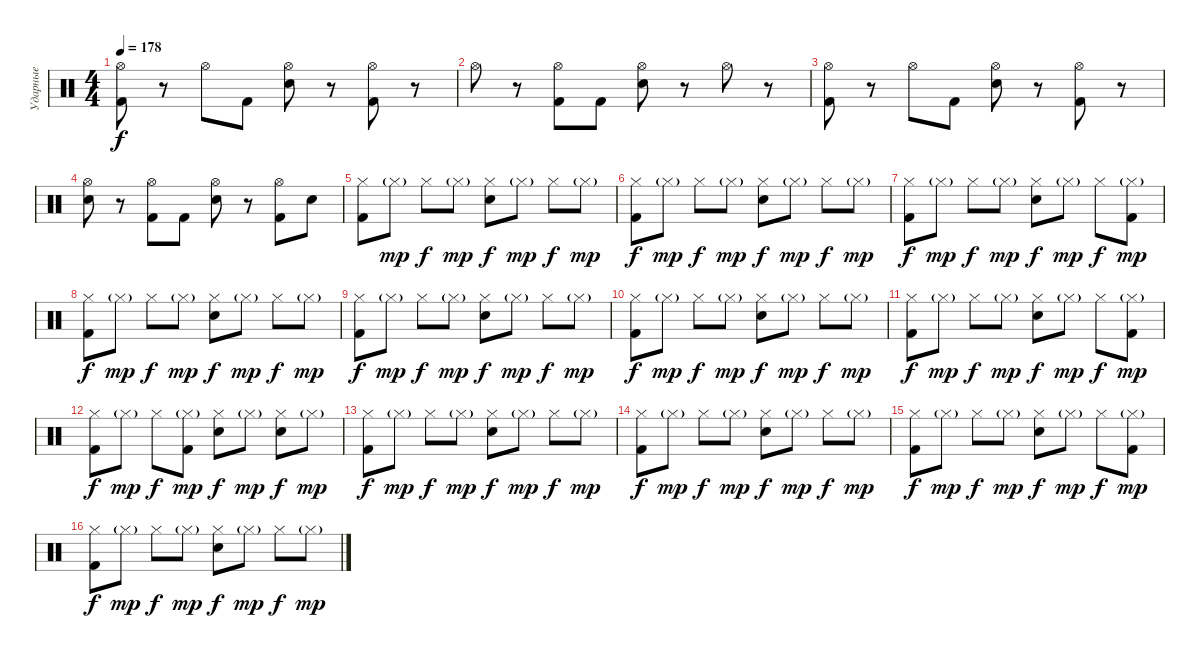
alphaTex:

\track ("Ударные" "Ударные") {instrument percussion}
\staff {score}
\articulation defaults
\ts (4 4)
\tempo 178
\clef neutral
\ks c
("Hi-Hat (open)" "Kick (hit) 2").8{dy f} r.8 "Hi-Hat (open)".8 "Kick (hit) 2".8 ("Hi-Hat (open)" "Snare (hit) 2").8 r.8 ("Hi-Hat (open)" "Kick (hit) 2").8 r.8 |
"Hi-Hat (open)".8 r.8 ("Hi-Hat (open)" "Kick (hit) 2").8 "Kick (hit) 2".8 ("Hi-Hat (open)" "Snare (hit) 2").8 r.8 "Hi-Hat (open)".8 r.8 |
("Hi-Hat (open)" "Kick (hit) 2").8 r.8 "Hi-Hat (open)".8 "Kick (hit) 2".8 ("Hi-Hat (open)" "Snare (hit) 2").8 r.8 ("Hi-Hat (open)" "Kick (hit) 2").8 r.8 |
("Hi-Hat (open)" "Snare (hit) 2").8 r.8 ("Hi-Hat (open)" "Kick (hit) 2").8 "Kick (hit) 2".8 ("Hi-Hat (open)" "Snare (hit) 2").8 r.8 ("Hi-Hat (open)" "Kick (hit) 2").8 "Snare (hit) 2".8 |
("Hi-Hat (closed)" "Kick (hit) 2").8 "Hi-Hat (closed)"{g}.8{dy mp} "Hi-Hat (closed)".8{dy f} "Hi-Hat (closed)"{g}.8{dy mp} ("Hi-Hat (closed)" "Snare (hit) 2").8{dy f} "Hi-Hat (closed)"{g}.8{dy mp} "Hi-Hat (closed)".8{dy f} "Hi-Hat (closed)"{g}.8{dy mp} |
("Hi-Hat (closed)" "Kick (hit) 2").8{dy f} "Hi-Hat (closed)"{g}.8{dy mp} "Hi-Hat (closed)".8{dy f} "Hi-Hat (closed)"{g}.8{dy mp} ("Hi-Hat (closed)" "Snare (hit) 2").8{dy f} "Hi-Hat (closed)"{g}.8{dy mp} "Hi-Hat (closed)".8{dy f} "Hi-Hat (closed)"{g}.8{dy mp} |
("Hi-Hat (closed)" "Kick (hit) 2").8{dy f} "Hi-Hat (closed)"{g}.8{dy mp} "Hi-Hat (closed)".8{dy f} "Hi-Hat (closed)"{g}.8{dy mp} ("Hi-Hat (closed)" "Snare (hit) 2").8{dy f} "Hi-Hat (closed)"{g}.8{dy mp} "Hi-Hat (closed)".8{dy f} ("Hi-Hat (closed)"{g} "Kick (hit) 2").8{dy mp} |
("Hi-Hat (closed)" "Kick (hit) 2").8{dy f} "Hi-Hat (closed)"{g}.8{dy mp} "Hi-Hat (closed)".8{dy f} "Hi-Hat (closed)"{g}.8{dy mp} ("Hi-Hat (closed)" "Snare (hit) 2").8{dy f} "Hi-Hat (closed)"{g}.8{dy mp} "Hi-Hat (closed)".8{dy f} "Hi-Hat (closed)"{g}.8{dy mp} |
("Hi-Hat (closed)" "Kick (hit) 2").8{dy f} "Hi-Hat (closed)"{g}.8{dy mp} "Hi-Hat (closed)".8{dy f} "Hi-Hat (closed)"{g}.8{dy mp} ("Hi-Hat (closed)" "Snare (hit) 2").8{dy f} "Hi-Hat (closed)"{g}.8{dy mp} "Hi-Hat (closed)".8{dy f} "Hi-Hat (closed)"{g}.8{dy mp} |
("Hi-Hat (closed)" "Kick (hit) 2").8{dy f} "Hi-Hat (closed)"{g}.8{dy mp} "Hi-Hat (closed)".8{dy f} "Hi-Hat (closed)"{g}.8{dy mp} ("Hi-Hat (closed)" "Snare (hit) 2").8{dy f} "Hi-Hat (closed)"{g}.8{dy mp} "Hi-Hat (closed)".8{dy f} "Hi-Hat (closed)"{g}.8{dy mp} |
("Hi-Hat (closed)" "Kick (hit) 2").8{dy f} "Hi-Hat (closed)"{g}.8{dy mp} "Hi-Hat (closed)".8{dy f} "Hi-Hat (closed)"{g}.8{dy mp} ("Hi-Hat (closed)" "Snare (hit) 2").8{dy f} "Hi-Hat (closed)"{g}.8{dy mp} "Hi-Hat (closed)".8{dy f} ("Hi-Hat (closed)"{g} "Kick (hit) 2").8{dy mp} |
("Hi-Hat (closed)" "Kick (hit) 2").8{dy f} "Hi-Hat (closed)"{g}.8{dy mp} "Hi-Hat (closed)".8{dy f} ("Hi-Hat (closed)"{g} "Kick (hit) 2").8{dy mp} ("Hi-Hat (closed)" "Snare (hit) 2").8{dy f} "Hi-Hat (closed)"{g}.8{dy mp} ("Hi-Hat (closed)" "Snare (hit) 2").8{dy f} "Hi-Hat (closed)"{g}.8{dy mp} |
("Hi-Hat (closed)" "Kick (hit) 2").8{dy f} "Hi-Hat (closed)"{g}.8{dy mp} "Hi-Hat (closed)".8{dy f} "Hi-Hat (closed)"{g}.8{dy mp} ("Hi-Hat (closed)" "Snare (hit) 2").8{dy f} "Hi-Hat (closed)"{g}.8{dy mp} "Hi-Hat (closed)".8{dy f} "Hi-Hat (closed)"{g}.8{dy mp} |
("Hi-Hat (closed)" "Kick (hit) 2").8{dy f} "Hi-Hat (closed)"{g}.8{dy mp} "Hi-Hat (closed)".8{dy f} "Hi-Hat (closed)"{g}.8{dy mp} ("Hi-Hat (closed)" "Snare (hit) 2").8{dy f} "Hi-Hat (closed)"{g}.8{dy mp} "Hi-Hat (closed)".8{dy f} "Hi-Hat (closed)"{g}.8{dy mp} |
("Hi-Hat (closed)" "Kick (hit) 2").8{dy f} "Hi-Hat (closed)"{g}.8{dy mp} "Hi-Hat (closed)".8{dy f} "Hi-Hat (closed)"{g}.8{dy mp} ("Hi-Hat (closed)" "Snare (hit) 2").8{dy f} "Hi-Hat (closed)"{g}.8{dy mp} "Hi-Hat (closed)".8{dy f} ("Hi-Hat (closed)"{g} "Kick (hit) 2").8{dy mp} |
("Hi-Hat (closed)" "Kick (hit) 2").8{dy f} "Hi-Hat (closed)"{g}.8{dy mp} "Hi-Hat (closed)".8{dy f} "Hi-Hat (closed)"{g}.8{dy mp} ("Hi-Hat (closed)" "Snare (hit) 2").8{dy f} "Hi-Hat (closed)"{g}.8{dy mp} "Hi-Hat (closed)".8{dy f} "Hi-Hat (closed)"{g}.8{dy mp}
